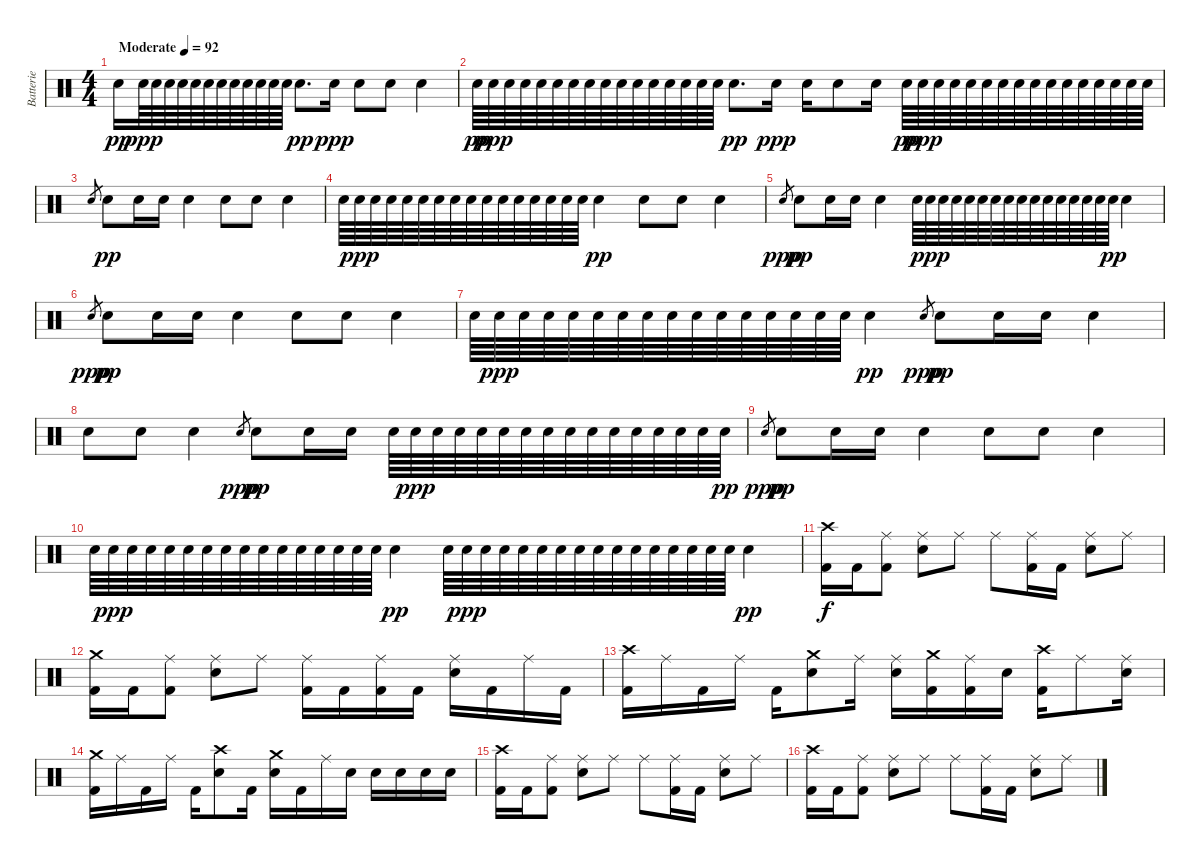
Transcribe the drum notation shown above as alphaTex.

\track ("Batterie" "Batterie") {instrument percussion}
\staff {score}
\articulation defaults
\ts (4 4)
\tempo (92 "Moderate")
\clef neutral
\ks c "Electric Snare (hit)".16{dy pp} "Electric Snare (hit)".64{dy ppp} "Electric Snare (hit)".64 "Electric Snare (hit)".64 "Electric Snare (hit)".64 "Electric Snare (hit)".64 "Electric Snare (hit)".64 "Electric Snare (hit)".64 "Electric Snare (hit)".64 "Electric Snare (hit)".64 "Electric Snare (hit)".64 "Electric Snare (hit)".64 "Electric Snare (hit)".64 "Electric Snare (hit)".8{d dy pp} "Electric Snare (hit)".16{dy ppp} "Electric Snare (hit)".8 "Electric Snare (hit)".8 "Electric Snare (hit)".4
|
"Electric Snare (hit)".64{dy pp} "Electric Snare (hit)".64{dy ppp} "Electric Snare (hit)".64 "Electric Snare (hit)".64 "Electric Snare (hit)".64 "Electric Snare (hit)".64 "Electric Snare (hit)".64 "Electric Snare (hit)".64 "Electric Snare (hit)".64 "Electric Snare (hit)".64 "Electric Snare (hit)".64 "Electric Snare (hit)".64 "Electric Snare (hit)".64 "Electric Snare (hit)".64 "Electric Snare (hit)".64 "Electric Snare (hit)".64 "Electric Snare (hit)".8{d dy pp} "Electric Snare (hit)".16{dy ppp} "Electric Snare (hit)".16 "Electric Snare (hit)".8 "Electric Snare (hit)".16 "Electric Snare (hit)".64{dy pp} "Electric Snare (hit)".64{dy ppp} "Electric Snare (hit)".64 "Electric Snare (hit)".64 "Electric Snare (hit)".64 "Electric Snare (hit)".64 "Electric Snare (hit)".64 "Electric Snare (hit)".64 "Electric Snare (hit)".64 "Electric Snare (hit)".64 "Electric Snare (hit)".64 "Electric Snare (hit)".64 "Electric Snare (hit)".64 "Electric Snare (hit)".64 "Electric Snare (hit)".64 "Electric Snare (hit)".64 |
"Electric Snare (hit)".8{gr} "Electric Snare (hit)".8{dy pp} "Electric Snare (hit)".16 "Electric Snare (hit)".16 "Electric Snare (hit)".4 "Electric Snare (hit)".8 "Electric Snare (hit)".8 "Electric Snare (hit)".4 |
"Electric Snare (hit)".64 "Electric Snare (hit)".64{dy ppp} "Electric Snare (hit)".64 "Electric Snare (hit)".64 "Electric Snare (hit)".64 "Electric Snare (hit)".64 "Electric Snare (hit)".64 "Electric Snare (hit)".64 "Electric Snare (hit)".64 "Electric Snare (hit)".64 "Electric Snare (hit)".64 "Electric Snare (hit)".64 "Electric Snare (hit)".64 "Electric Snare (hit)".64 "Electric Snare (hit)".64 "Electric Snare (hit)".64 "Electric Snare (hit)".4{dy pp} "Electric Snare (hit)".8 "Electric Snare (hit)".8 "Electric Snare (hit)".4 |
"Electric Snare (hit)".8{gr dy ppp} "Electric Snare (hit)".8{dy pp} "Electric Snare (hit)".16 "Electric Snare (hit)".16 "Electric Snare (hit)".4 "Electric Snare (hit)".64 "Electric Snare (hit)".64{dy ppp} "Electric Snare (hit)".64 "Electric Snare (hit)".64 "Electric Snare (hit)".64 "Electric Snare (hit)".64 "Electric Snare (hit)".64 "Electric Snare (hit)".64 "Electric Snare (hit)".64 "Electric Snare (hit)".64 "Electric Snare (hit)".64 "Electric Snare (hit)".64 "Electric Snare (hit)".64 "Electric Snare (hit)".64 "Electric Snare (hit)".64 "Electric Snare (hit)".64{dy pp} "Electric Snare (hit)".4 |
"Electric Snare (hit)".8{gr dy ppp} "Electric Snare (hit)".8{dy pp} "Electric Snare (hit)".16 "Electric Snare (hit)".16 "Electric Snare (hit)".4 "Electric Snare (hit)".8 "Electric Snare (hit)".8 "Electric Snare (hit)".4 |
"Electric Snare (hit)".64 "Electric Snare (hit)".64{dy ppp} "Electric Snare (hit)".64 "Electric Snare (hit)".64 "Electric Snare (hit)".64 "Electric Snare (hit)".64 "Electric Snare (hit)".64 "Electric Snare (hit)".64 "Electric Snare (hit)".64 "Electric Snare (hit)".64 "Electric Snare (hit)".64 "Electric Snare (hit)".64 "Electric Snare (hit)".64 "Electric Snare (hit)".64 "Electric Snare (hit)".64 "Electric Snare (hit)".64 "Electric Snare (hit)".4{dy pp} "Electric Snare (hit)".8{gr dy ppp} "Electric Snare (hit)".8{dy pp} "Electric Snare (hit)".16 "Electric Snare (hit)".16 "Electric Snare (hit)".4 |
"Electric Snare (hit)".8 "Electric Snare (hit)".8 "Electric Snare (hit)".4 "Electric Snare (hit)".8{gr dy ppp} "Electric Snare (hit)".8{dy pp} "Electric Snare (hit)".16 "Electric Snare (hit)".16 "Electric Snare (hit)".64 "Electric Snare (hit)".64{dy ppp} "Electric Snare (hit)".64 "Electric Snare (hit)".64 "Electric Snare (hit)".64 "Electric Snare (hit)".64 "Electric Snare (hit)".64 "Electric Snare (hit)".64 "Electric Snare (hit)".64 "Electric Snare (hit)".64 "Electric Snare (hit)".64 "Electric Snare (hit)".64 "Electric Snare (hit)".64 "Electric Snare (hit)".64 "Electric Snare (hit)".64 "Electric Snare (hit)".64{dy pp} |
"Electric Snare (hit)".8{gr dy ppp} "Electric Snare (hit)".8{dy pp} "Electric Snare (hit)".16 "Electric Snare (hit)".16 "Electric Snare (hit)".4 "Electric Snare (hit)".8 "Electric Snare (hit)".8 "Electric Snare (hit)".4 |
"Electric Snare (hit)".64 "Electric Snare (hit)".64{dy ppp} "Electric Snare (hit)".64 "Electric Snare (hit)".64 "Electric Snare (hit)".64 "Electric Snare (hit)".64 "Electric Snare (hit)".64 "Electric Snare (hit)".64 "Electric Snare (hit)".64 "Electric Snare (hit)".64 "Electric Snare (hit)".64 "Electric Snare (hit)".64 "Electric Snare (hit)".64 "Electric Snare (hit)".64 "Electric Snare (hit)".64 "Electric Snare (hit)".64 "Electric Snare (hit)".4{dy pp} "Electric Snare (hit)".64 "Electric Snare (hit)".64{dy ppp} "Electric Snare (hit)".64 "Electric Snare (hit)".64 "Electric Snare (hit)".64 "Electric Snare (hit)".64 "Electric Snare (hit)".64 "Electric Snare (hit)".64 "Electric Snare (hit)".64 "Electric Snare (hit)".64 "Electric Snare (hit)".64 "Electric Snare (hit)".64 "Electric Snare (hit)".64 "Electric Snare (hit)".64 "Electric Snare (hit)".64 "Electric Snare (hit)".64 "Electric Snare (hit)".4{dy pp} |
("Crash high (hit)" "Kick (hit) 2").16{dy f} "Kick (hit) 2".16 ("Ride (middle)" "Kick (hit) 2").8 ("Ride (middle)" "Electric Snare (hit)").8 "Ride (middle)".8 "Ride (middle)".8 ("Ride (middle)" "Kick (hit) 2").16 "Kick (hit) 2".16 ("Ride (middle)" "Electric Snare (hit)").8 "Ride (middle)".8 |
("Crash medium (hit)" "Kick (hit) 2").16 "Kick (hit) 2".16 ("Ride (middle)" "Kick (hit) 2").8 ("Ride (middle)" "Electric Snare (hit)").8 "Ride (middle)".8 ("Ride (middle)" "Kick (hit) 2").16 "Kick (hit) 2".16 ("Ride (middle)" "Kick (hit) 2").16 "Kick (hit) 2".16 ("Ride (middle)" "Electric Snare (hit)").16 "Kick (hit) 2".16 "Ride (middle)".16 "Kick (hit) 2".16 |
("Crash high (hit)" "Kick (hit) 2").16 "Ride (middle)".16 "Kick (hit) 2".16 "Ride (middle)".16 "Kick (hit) 2".16 ("Crash medium (hit)" "Electric Snare (hit)").8 "Ride (middle)".16 ("Ride (middle)" "Electric Snare (hit)").16 ("Crash medium (hit)" "Kick (hit) 2").16 ("Ride (middle)" "Kick (hit) 2").16 "Electric Snare (hit)".16 ("Crash high (hit)" "Kick (hit) 2").16 "Ride (middle)".8 ("Ride (middle)" "Electric Snare (hit)").16 |
("Crash medium (hit)" "Kick (hit) 2").16 "Ride (middle)".16 "Kick (hit) 2".16 "Ride (middle)".16 "Kick (hit) 2".16 ("Crash high (hit)" "Electric Snare (hit)").8 "Kick (hit) 2".16 ("Crash medium (hit)" "Electric Snare (hit)").16 "Kick (hit) 2".16 "Ride (middle)".16 "Electric Snare (hit)".16 "Electric Snare (hit)".16 "Electric Snare (hit)".16 "Electric Snare (hit)".16 "Electric Snare (hit)".16 |
("Crash high (hit)" "Kick (hit) 2").16 "Kick (hit) 2".16 ("Ride (middle)" "Kick (hit) 2").8 ("Ride (middle)" "Electric Snare (hit)").8 "Ride (middle)".8 "Ride (middle)".8 ("Ride (middle)" "Kick (hit) 2").16 "Kick (hit) 2".16 ("Ride (middle)" "Electric Snare (hit)").8 "Ride (middle)".8 |
("Crash high (hit)" "Kick (hit) 2").16 "Kick (hit) 2".16 ("Ride (middle)" "Kick (hit) 2").8 ("Ride (middle)" "Electric Snare (hit)").8 "Ride (middle)".8 "Ride (middle)".8 ("Ride (middle)" "Kick (hit) 2").16 "Kick (hit) 2".16 ("Ride (middle)" "Electric Snare (hit)").8 "Ride (middle)".8
